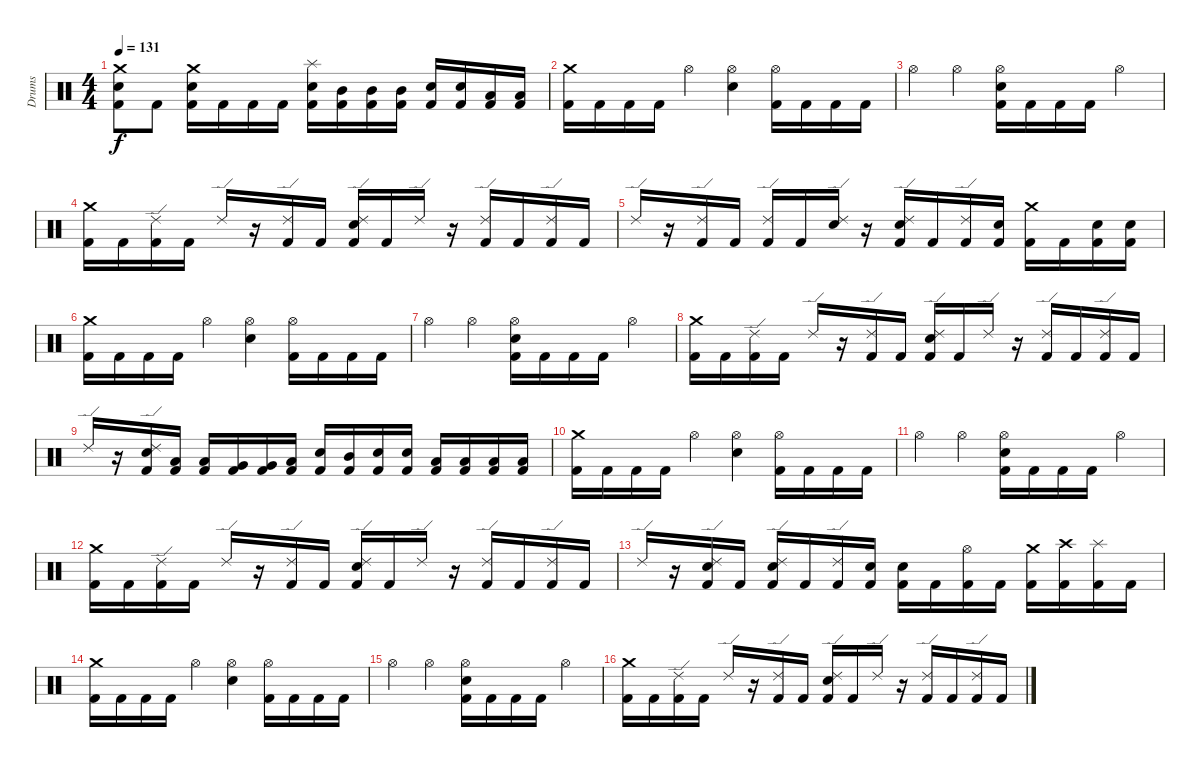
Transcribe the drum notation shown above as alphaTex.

\track ("Drums" "Drums") {instrument percussion}
\staff {score}
\articulation defaults
\ts (4 4)
\tempo 131
\clef neutral
\ks c
("Crash medium (hit)" "Electric Snare (hit)" "Kick (hit) 2").8{dy f} "Kick (hit) 2".8 ("Crash medium (hit)" "Electric Snare (hit)" "Kick (hit) 2").16 "Kick (hit) 2".16 "Kick (hit) 2".16 "Kick (hit) 2".16 ("Splash (hit)" "Electric Snare (hit)" "Kick (hit) 2").16 ("Mid Tom (hit)" "Kick (hit) 2").16 ("Mid Tom (hit)" "Kick (hit) 2").16 ("Mid Tom (hit)" "Kick (hit) 2").16 ("Electric Snare (hit)" "Kick (hit) 2").16 ("Electric Snare (hit)" "Kick (hit) 2").16 ("Low Floor Tom (hit)" "Kick (hit) 2").16 ("Low Floor Tom (hit)" "Kick (hit) 2").16 |
("Crash medium (hit)" "Kick (hit) 2").16 "Kick (hit) 2".16 "Kick (hit) 2".16 "Kick (hit) 2".16 "Hi-Hat (open)".4 ("Hi-Hat (open)" "Electric Snare (hit)").4 ("Hi-Hat (open)" "Kick (hit) 2").16 "Kick (hit) 2".16 "Kick (hit) 2".16 "Kick (hit) 2".16 |
"Hi-Hat (open)".4 "Hi-Hat (open)".4 ("Hi-Hat (open)" "Electric Snare (hit)" "Kick (hit) 2").16 "Kick (hit) 2".16 "Kick (hit) 2".16 "Kick (hit) 2".16 "Hi-Hat (open)".4 |
("Crash medium (hit)" "Kick (hit) 2").16 "Kick (hit) 2".16 ("Ride (edge) 2" "Kick (hit) 2").16 "Kick (hit) 2".16 "Ride (edge) 2".16 r.16 ("Ride (edge) 2" "Kick (hit) 2").16 "Kick (hit) 2".16 ("Ride (edge) 2" "Electric Snare (hit)" "Kick (hit) 2").16 "Kick (hit) 2".16 "Ride (edge) 2".16 r.16 ("Ride (edge) 2" "Kick (hit) 2").16 "Kick (hit) 2".16 ("Ride (edge) 2" "Kick (hit) 2").16 "Kick (hit) 2".16 |
"Ride (edge) 2".16 r.16 ("Ride (edge) 2" "Kick (hit) 2").16 "Kick (hit) 2".16 ("Ride (edge) 2" "Kick (hit) 2").16 "Kick (hit) 2".16 ("Ride (edge) 2" "Electric Snare (hit)").16 r.16 ("Ride (edge) 2" "Electric Snare (hit)" "Kick (hit) 2").16 "Kick (hit) 2".16 ("Ride (edge) 2" "Kick (hit) 2").16 ("Electric Snare (hit)" "Kick (hit) 2").16 ("Crash medium (hit)" "Kick (hit) 2").16 "Kick (hit) 2".16 ("Electric Snare (hit)" "Kick (hit) 2").16 ("Electric Snare (hit)" "Kick (hit) 2").16 |
("Crash medium (hit)" "Kick (hit) 2").16 "Kick (hit) 2".16 "Kick (hit) 2".16 "Kick (hit) 2".16 "Hi-Hat (open)".4 ("Hi-Hat (open)" "Electric Snare (hit)").4 ("Hi-Hat (open)" "Kick (hit) 2").16 "Kick (hit) 2".16 "Kick (hit) 2".16 "Kick (hit) 2".16 |
"Hi-Hat (open)".4 "Hi-Hat (open)".4 ("Hi-Hat (open)" "Electric Snare (hit)" "Kick (hit) 2").16 "Kick (hit) 2".16 "Kick (hit) 2".16 "Kick (hit) 2".16 "Hi-Hat (open)".4 |
("Crash medium (hit)" "Kick (hit) 2").16 "Kick (hit) 2".16 ("Ride (edge) 2" "Kick (hit) 2").16 "Kick (hit) 2".16 "Ride (edge) 2".16 r.16 ("Ride (edge) 2" "Kick (hit) 2").16 "Kick (hit) 2".16 ("Ride (edge) 2" "Electric Snare (hit)" "Kick (hit) 2").16 "Kick (hit) 2".16 "Ride (edge) 2".16 r.16 ("Ride (edge) 2" "Kick (hit) 2").16 "Kick (hit) 2".16 ("Ride (edge) 2" "Kick (hit) 2").16 "Kick (hit) 2".16 |
"Ride (edge) 2".16 r.16 ("Ride (edge) 2" "Electric Snare (hit)" "Kick (hit) 2").16 ("Low Tom (hit)" "Kick (hit) 2").16 ("Low Tom (hit)" "Kick (hit) 2").16 ("Very Low Tom (hit)" "Kick (hit) 2").16 ("Very Low Tom (hit)" "Kick (hit) 2").16 ("Low Floor Tom (hit)" "Kick (hit) 2").16 ("Electric Snare (hit)" "Kick (hit) 2").16 ("Mid Tom (hit)" "Kick (hit) 2").16 ("Electric Snare (hit)" "Kick (hit) 2").16 ("Electric Snare (hit)" "Kick (hit) 2").16 ("Low Floor Tom (hit)" "Kick (hit) 2").16 ("Low Floor Tom (hit)" "Kick (hit) 2").16 ("Low Floor Tom (hit)" "Kick (hit) 2").16 ("Low Floor Tom (hit)" "Kick (hit) 2").16 |
("Crash medium (hit)" "Kick (hit) 2").16 "Kick (hit) 2".16 "Kick (hit) 2".16 "Kick (hit) 2".16 "Hi-Hat (open)".4 ("Hi-Hat (open)" "Electric Snare (hit)").4 ("Hi-Hat (open)" "Kick (hit) 2").16 "Kick (hit) 2".16 "Kick (hit) 2".16 "Kick (hit) 2".16 |
"Hi-Hat (open)".4 "Hi-Hat (open)".4 ("Hi-Hat (open)" "Electric Snare (hit)" "Kick (hit) 2").16 "Kick (hit) 2".16 "Kick (hit) 2".16 "Kick (hit) 2".16 "Hi-Hat (open)".4 |
("Crash medium (hit)" "Kick (hit) 2").16 "Kick (hit) 2".16 ("Ride (edge) 2" "Kick (hit) 2").16 "Kick (hit) 2".16 "Ride (edge) 2".16 r.16 ("Ride (edge) 2" "Kick (hit) 2").16 "Kick (hit) 2".16 ("Ride (edge) 2" "Electric Snare (hit)" "Kick (hit) 2").16 "Kick (hit) 2".16 "Ride (edge) 2".16 r.16 ("Ride (edge) 2" "Kick (hit) 2").16 "Kick (hit) 2".16 ("Ride (edge) 2" "Kick (hit) 2").16 "Kick (hit) 2".16 |
"Ride (edge) 2".16 r.16 ("Ride (edge) 2" "Electric Snare (hit)" "Kick (hit) 2").16 "Kick (hit) 2".16 ("Ride (edge) 2" "Electric Snare (hit)" "Kick (hit) 2").16 "Kick (hit) 2".16 ("Ride (edge) 2" "Kick (hit) 2").16 ("Electric Snare (hit)" "Kick (hit) 2").16 ("Electric Snare (hit)" "Kick (hit) 2").16 "Kick (hit) 2".16 ("Hi-Hat (open)" "Kick (hit) 2").16 "Kick (hit) 2".16 ("Crash medium (hit)" "Kick (hit) 2").16 ("Crash high (hit)" "Kick (hit) 2").16 ("Splash (hit)" "Kick (hit) 2").16 "Kick (hit) 2".16 |
("Crash medium (hit)" "Kick (hit) 2").16 "Kick (hit) 2".16 "Kick (hit) 2".16 "Kick (hit) 2".16 "Hi-Hat (open)".4 ("Hi-Hat (open)" "Electric Snare (hit)").4 ("Hi-Hat (open)" "Kick (hit) 2").16 "Kick (hit) 2".16 "Kick (hit) 2".16 "Kick (hit) 2".16 |
"Hi-Hat (open)".4 "Hi-Hat (open)".4 ("Hi-Hat (open)" "Electric Snare (hit)" "Kick (hit) 2").16 "Kick (hit) 2".16 "Kick (hit) 2".16 "Kick (hit) 2".16 "Hi-Hat (open)".4 |
("Crash medium (hit)" "Kick (hit) 2").16 "Kick (hit) 2".16 ("Ride (edge) 2" "Kick (hit) 2").16 "Kick (hit) 2".16 "Ride (edge) 2".16 r.16 ("Ride (edge) 2" "Kick (hit) 2").16 "Kick (hit) 2".16 ("Ride (edge) 2" "Electric Snare (hit)" "Kick (hit) 2").16 "Kick (hit) 2".16 "Ride (edge) 2".16 r.16 ("Ride (edge) 2" "Kick (hit) 2").16 "Kick (hit) 2".16 ("Ride (edge) 2" "Kick (hit) 2").16 "Kick (hit) 2".16
